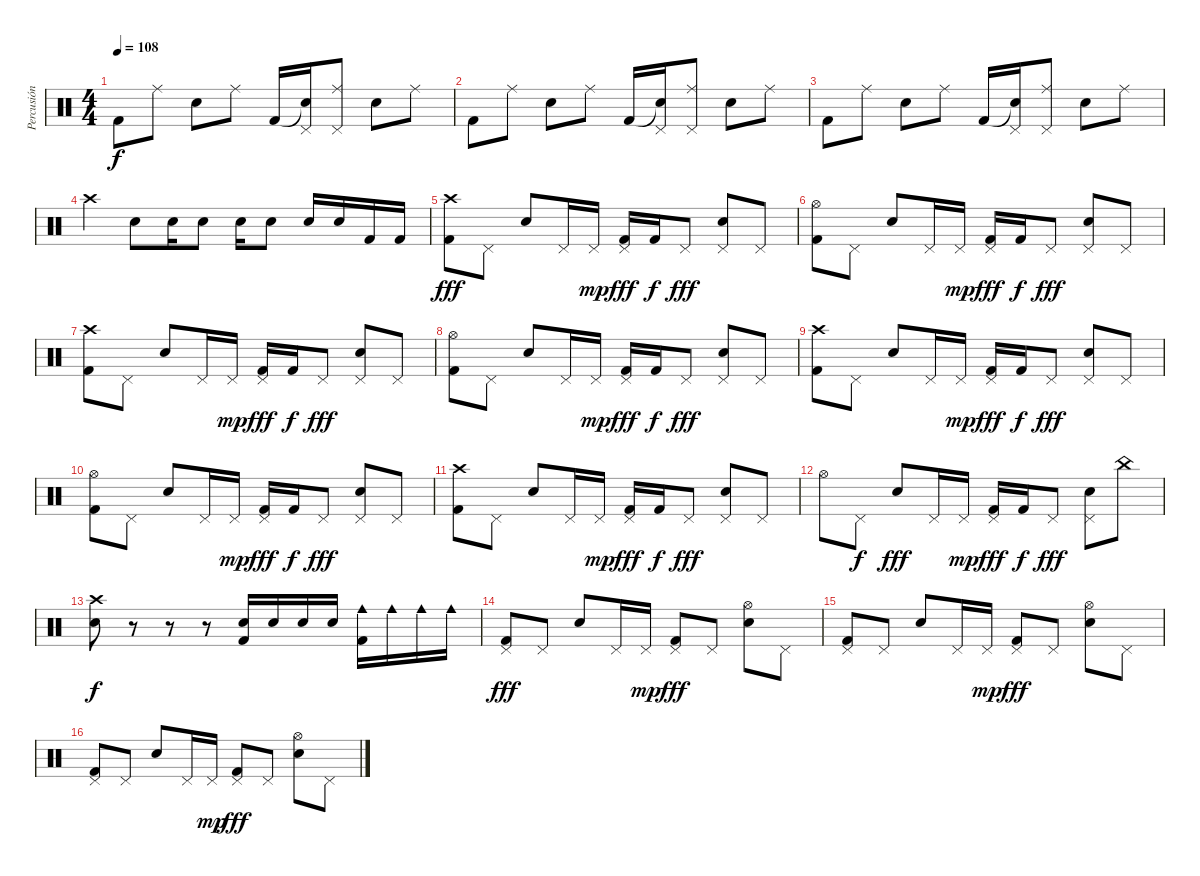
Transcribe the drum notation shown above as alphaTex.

\track ("Percusión" "Percusión") {instrument percussion}
\staff {score}
\articulation defaults
\ts (4 4)
\tempo 108
\clef neutral
\ks c "Kick (hit) 2".8{dy f} "Ride (middle)".8 "Snare (hit) 2".8 "Ride (middle)".8 "Kick (hit) 2".16
("Snare (hit)"{t} "Pedal Hi-Hat (hit)").16 ("Ride (middle)" "Pedal Hi-Hat (hit)").8 "Snare (hit) 2".8 "Ride (middle)".8 |
"Kick (hit) 2".8 "Ride (middle)".8 "Snare (hit) 2".8 "Ride (middle)".8 "Kick (hit) 2".16 ("Snare (hit)"{t} "Pedal Hi-Hat (hit)").16 ("Ride (middle)" "Pedal Hi-Hat (hit)").8 "Snare (hit) 2".8 "Ride (middle)".8 |
"Kick (hit) 2".8 "Ride (middle)".8 "Snare (hit) 2".8 "Ride (middle)".8 "Kick (hit) 2".16 ("Snare (hit)"{t} "Pedal Hi-Hat (hit)").16 ("Ride (middle)" "Pedal Hi-Hat (hit)").8 "Snare (hit) 2".8 "Ride (middle)".8 |
"Crash high (hit)".4 "Snare (hit) 2".8 "Snare (hit) 2".16 "Snare (hit) 2".8 "Snare (hit) 2".16 "Snare (hit) 2".8 "Snare (hit) 2".16 "Snare (hit) 2".16 "Kick (hit) 2".16 "Kick (hit) 2".16 |
("Crash high (hit)" "Kick (hit) 2").8{dy fff} "Pedal Hi-Hat (hit)".8 "Snare (hit) 2".8 "Pedal Hi-Hat (hit)".16 "Pedal Hi-Hat (hit)".16{dy mp} ("Pedal Hi-Hat (hit)" "Kick (hit) 2").16{dy fff} "Kick (hit) 2".16{dy f} "Pedal Hi-Hat (hit)".8{dy fff} ("Snare (hit) 2" "Pedal Hi-Hat (hit)").8 "Pedal Hi-Hat (hit)".8 |
("Hi-Hat (open)" "Kick (hit) 2").8 "Pedal Hi-Hat (hit)".8 "Snare (hit) 2".8 "Pedal Hi-Hat (hit)".16 "Pedal Hi-Hat (hit)".16{dy mp} ("Pedal Hi-Hat (hit)" "Kick (hit) 2").16{dy fff} "Kick (hit) 2".16{dy f} "Pedal Hi-Hat (hit)".8{dy fff} ("Snare (hit) 2" "Pedal Hi-Hat (hit)").8 "Pedal Hi-Hat (hit)".8 |
("Crash high (hit)" "Kick (hit) 2").8 "Pedal Hi-Hat (hit)".8 "Snare (hit) 2".8 "Pedal Hi-Hat (hit)".16 "Pedal Hi-Hat (hit)".16{dy mp} ("Pedal Hi-Hat (hit)" "Kick (hit) 2").16{dy fff} "Kick (hit) 2".16{dy f} "Pedal Hi-Hat (hit)".8{dy fff} ("Snare (hit) 2" "Pedal Hi-Hat (hit)").8 "Pedal Hi-Hat (hit)".8 |
("Hi-Hat (open)" "Kick (hit) 2").8 "Pedal Hi-Hat (hit)".8 "Snare (hit) 2".8 "Pedal Hi-Hat (hit)".16 "Pedal Hi-Hat (hit)".16{dy mp} ("Pedal Hi-Hat (hit)" "Kick (hit) 2").16{dy fff} "Kick (hit) 2".16{dy f} "Pedal Hi-Hat (hit)".8{dy fff} ("Snare (hit) 2" "Pedal Hi-Hat (hit)").8 "Pedal Hi-Hat (hit)".8 |
("Crash high (hit)" "Kick (hit) 2").8 "Pedal Hi-Hat (hit)".8 "Snare (hit) 2".8 "Pedal Hi-Hat (hit)".16 "Pedal Hi-Hat (hit)".16{dy mp} ("Pedal Hi-Hat (hit)" "Kick (hit) 2").16{dy fff} "Kick (hit) 2".16{dy f} "Pedal Hi-Hat (hit)".8{dy fff} ("Snare (hit) 2" "Pedal Hi-Hat (hit)").8 "Pedal Hi-Hat (hit)".8 |
("Hi-Hat (open)" "Kick (hit) 2").8 "Pedal Hi-Hat (hit)".8 "Snare (hit) 2".8 "Pedal Hi-Hat (hit)".16 "Pedal Hi-Hat (hit)".16{dy mp} ("Pedal Hi-Hat (hit)" "Kick (hit) 2").16{dy fff} "Kick (hit) 2".16{dy f} "Pedal Hi-Hat (hit)".8{dy fff} ("Snare (hit) 2" "Pedal Hi-Hat (hit)").8 "Pedal Hi-Hat (hit)".8 |
("Crash high (hit)" "Kick (hit) 2").8 "Pedal Hi-Hat (hit)".8 "Snare (hit) 2".8 "Pedal Hi-Hat (hit)".16 "Pedal Hi-Hat (hit)".16{dy mp} ("Pedal Hi-Hat (hit)" "Kick (hit) 2").16{dy fff} "Kick (hit) 2".16{dy f} "Pedal Hi-Hat (hit)".8{dy fff} ("Snare (hit) 2" "Pedal Hi-Hat (hit)").8 "Pedal Hi-Hat (hit)".8 |
"Hi-Hat (open)".8 "Pedal Hi-Hat (hit)".8{dy f} "Snare (hit) 2".8{dy fff} "Pedal Hi-Hat (hit)".16 "Pedal Hi-Hat (hit)".16{dy mp} ("Pedal Hi-Hat (hit)" "Kick (hit) 2").16{dy fff} "Kick (hit) 2".16{dy f} "Pedal Hi-Hat (hit)".8{dy fff} ("Snare (hit) 2" "Pedal Hi-Hat (hit)").8 "China (hit)".8 |
("Crash high (hit)" "Snare (hit) 2").8{dy f} r.8 r.8 r.8 ("Snare (hit) 2" "Kick (hit) 2").16 "Snare (hit) 2".16 "Snare (hit) 2".16 "Snare (hit) 2".16 ("Cowbell medium (hit)" "Kick (hit) 2").16 "Cowbell medium (hit)".16 "Cowbell medium (hit)".16 "Cowbell medium (hit)".16 |
("Pedal Hi-Hat (hit)" "Kick (hit) 2").8{dy fff} "Pedal Hi-Hat (hit)".8 "Snare (hit) 2".8 "Pedal Hi-Hat (hit)".16 "Pedal Hi-Hat (hit)".16{dy mp} ("Pedal Hi-Hat (hit)" "Kick (hit) 2").8{dy fff} "Pedal Hi-Hat (hit)".8 ("Snare (hit) 2" "Hi-Hat (open)").8 "Pedal Hi-Hat (hit)".8 |
("Pedal Hi-Hat (hit)" "Kick (hit) 2").8 "Pedal Hi-Hat (hit)".8 "Snare (hit) 2".8 "Pedal Hi-Hat (hit)".16 "Pedal Hi-Hat (hit)".16{dy mp} ("Pedal Hi-Hat (hit)" "Kick (hit) 2").8{dy fff} "Pedal Hi-Hat (hit)".8 ("Snare (hit) 2" "Hi-Hat (open)").8 "Pedal Hi-Hat (hit)".8 |
("Pedal Hi-Hat (hit)" "Kick (hit) 2").8 "Pedal Hi-Hat (hit)".8 "Snare (hit) 2".8 "Pedal Hi-Hat (hit)".16 "Pedal Hi-Hat (hit)".16{dy mp} ("Pedal Hi-Hat (hit)" "Kick (hit) 2").8{dy fff} "Pedal Hi-Hat (hit)".8 ("Snare (hit) 2" "Hi-Hat (open)").8 "Pedal Hi-Hat (hit)".8
